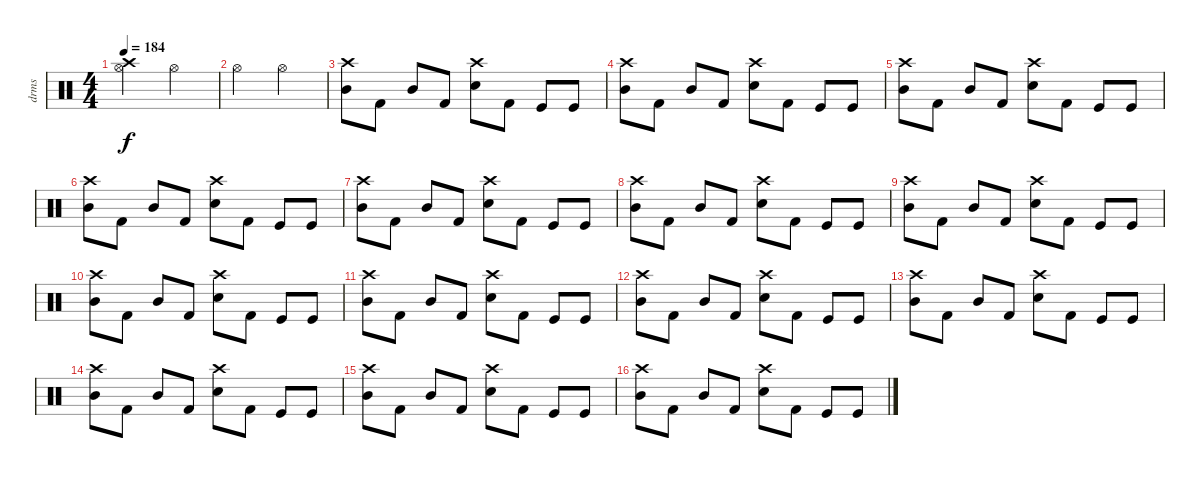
\track ("drms" "drms") {instrument percussion}
\staff {score}
\articulation defaults
\ts (4 4)
\tempo 184
\clef neutral
\ks c
("Crash high (hit)" "Hi-Hat (open)").2{dy f} "Hi-Hat (open)".2 |
"Hi-Hat (open)".2 "Hi-Hat (open)".2 |
("Mid Tom (hit)" "Crash high (hit)").8 "Kick (hit) 2".8 "Mid Tom (hit)".8 "Kick (hit) 2".8 ("Snare (hit) 2" "Crash high (hit)").8 "Kick (hit) 2".8 "Kick (hit)".8 "Kick (hit)".8 |
("Mid Tom (hit)" "Crash high (hit)").8 "Kick (hit) 2".8 "Mid Tom (hit)".8 "Kick (hit) 2".8 ("Snare (hit) 2" "Crash high (hit)").8 "Kick (hit) 2".8 "Kick (hit)".8 "Kick (hit)".8 |
("Mid Tom (hit)" "Crash high (hit)").8 "Kick (hit) 2".8 "Mid Tom (hit)".8 "Kick (hit) 2".8 ("Snare (hit) 2" "Crash high (hit)").8 "Kick (hit) 2".8 "Kick (hit)".8 "Kick (hit)".8 |
("Mid Tom (hit)" "Crash high (hit)").8 "Kick (hit) 2".8 "Mid Tom (hit)".8 "Kick (hit) 2".8 ("Snare (hit) 2" "Crash high (hit)").8 "Kick (hit) 2".8 "Kick (hit)".8 "Kick (hit)".8 |
("Mid Tom (hit)" "Crash high (hit)").8 "Kick (hit) 2".8 "Mid Tom (hit)".8 "Kick (hit) 2".8 ("Snare (hit) 2" "Crash high (hit)").8 "Kick (hit) 2".8 "Kick (hit)".8 "Kick (hit)".8 |
("Mid Tom (hit)" "Crash high (hit)").8 "Kick (hit) 2".8 "Mid Tom (hit)".8 "Kick (hit) 2".8 ("Snare (hit) 2" "Crash high (hit)").8 "Kick (hit) 2".8 "Kick (hit)".8 "Kick (hit)".8 |
("Mid Tom (hit)" "Crash high (hit)").8 "Kick (hit) 2".8 "Mid Tom (hit)".8 "Kick (hit) 2".8 ("Snare (hit) 2" "Crash high (hit)").8 "Kick (hit) 2".8 "Kick (hit)".8 "Kick (hit)".8 |
("Mid Tom (hit)" "Crash high (hit)").8 "Kick (hit) 2".8 "Mid Tom (hit)".8 "Kick (hit) 2".8 ("Snare (hit) 2" "Crash high (hit)").8 "Kick (hit) 2".8 "Kick (hit)".8 "Kick (hit)".8 |
("Mid Tom (hit)" "Crash high (hit)").8 "Kick (hit) 2".8 "Mid Tom (hit)".8 "Kick (hit) 2".8 ("Snare (hit) 2" "Crash high (hit)").8 "Kick (hit) 2".8 "Kick (hit)".8 "Kick (hit)".8 |
("Mid Tom (hit)" "Crash high (hit)").8 "Kick (hit) 2".8 "Mid Tom (hit)".8 "Kick (hit) 2".8 ("Snare (hit) 2" "Crash high (hit)").8 "Kick (hit) 2".8 "Kick (hit)".8 "Kick (hit)".8 |
("Mid Tom (hit)" "Crash high (hit)").8 "Kick (hit) 2".8 "Mid Tom (hit)".8 "Kick (hit) 2".8 ("Snare (hit) 2" "Crash high (hit)").8 "Kick (hit) 2".8 "Kick (hit)".8 "Kick (hit)".8 |
("Mid Tom (hit)" "Crash high (hit)").8 "Kick (hit) 2".8 "Mid Tom (hit)".8 "Kick (hit) 2".8 ("Snare (hit) 2" "Crash high (hit)").8 "Kick (hit) 2".8 "Kick (hit)".8 "Kick (hit)".8 |
("Mid Tom (hit)" "Crash high (hit)").8 "Kick (hit) 2".8 "Mid Tom (hit)".8 "Kick (hit) 2".8 ("Snare (hit) 2" "Crash high (hit)").8 "Kick (hit) 2".8 "Kick (hit)".8 "Kick (hit)".8 |
("Mid Tom (hit)" "Crash high (hit)").8 "Kick (hit) 2".8 "Mid Tom (hit)".8 "Kick (hit) 2".8 ("Snare (hit) 2" "Crash high (hit)").8 "Kick (hit) 2".8 "Kick (hit)".8 "Kick (hit)".8
